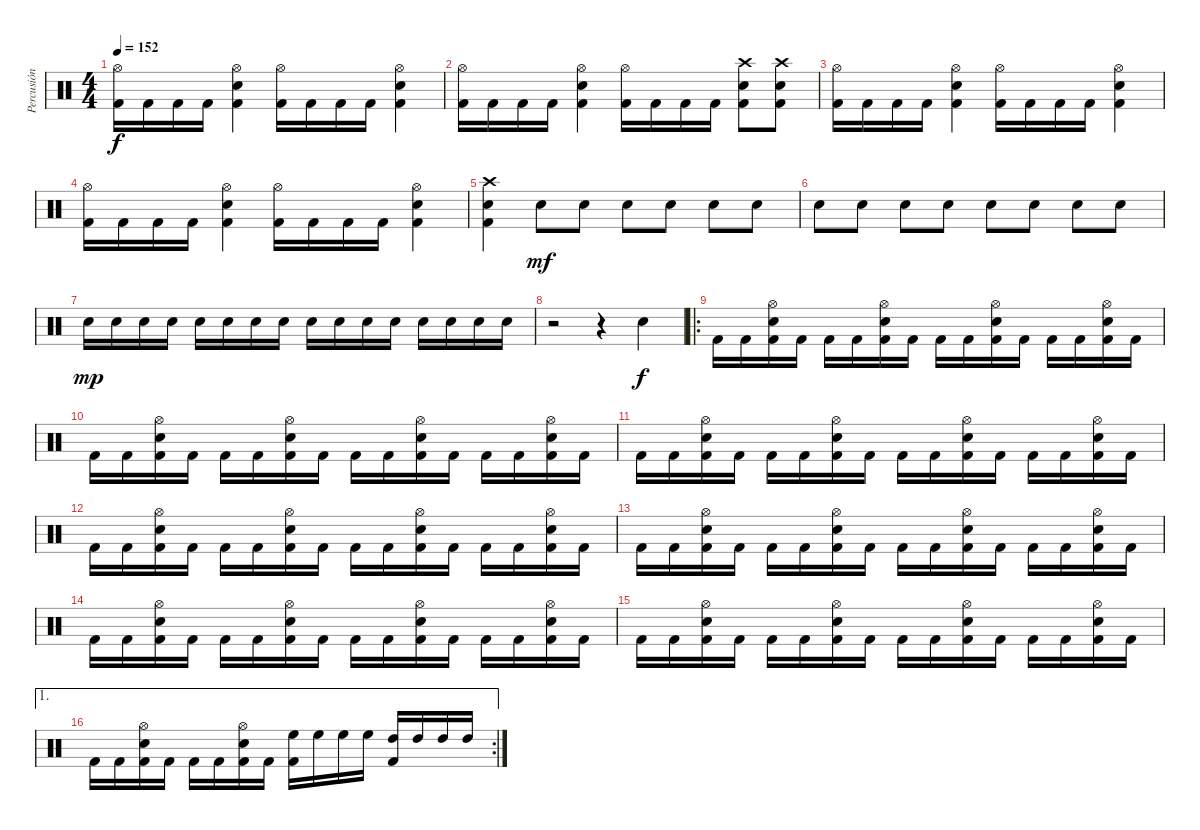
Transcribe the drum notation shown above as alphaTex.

\track ("Percusión" "Percusión") {instrument percussion}
\staff {score}
\articulation defaults
\ts (4 4)
\tempo 152
\clef neutral
\ks c
("Hi-Hat (open)" "Kick (hit) 2").16{dy f} "Kick (hit) 2".16 "Kick (hit) 2".16 "Kick (hit) 2".16 ("Hi-Hat (open)" "Snare (hit) 2" "Kick (hit) 2").4 ("Hi-Hat (open)" "Kick (hit) 2").16 "Kick (hit) 2".16 "Kick (hit) 2".16 "Kick (hit) 2".16 ("Hi-Hat (open)" "Snare (hit) 2" "Kick (hit) 2").4 |
("Hi-Hat (open)" "Kick (hit) 2").16 "Kick (hit) 2".16 "Kick (hit) 2".16 "Kick (hit) 2".16 ("Hi-Hat (open)" "Snare (hit) 2" "Kick (hit) 2").4 ("Hi-Hat (open)" "Kick (hit) 2").16 "Kick (hit) 2".16 "Kick (hit) 2".16 "Kick (hit) 2".16 ("Crash high (hit)" "Snare (hit) 2" "Kick (hit) 2").8 ("Crash high (hit)" "Snare (hit) 2" "Kick (hit) 2").8 |
("Hi-Hat (open)" "Kick (hit) 2").16 "Kick (hit) 2".16 "Kick (hit) 2".16 "Kick (hit) 2".16 ("Hi-Hat (open)" "Snare (hit) 2" "Kick (hit) 2").4 ("Hi-Hat (open)" "Kick (hit) 2").16 "Kick (hit) 2".16 "Kick (hit) 2".16 "Kick (hit) 2".16 ("Hi-Hat (open)" "Snare (hit) 2" "Kick (hit) 2").4 |
("Hi-Hat (open)" "Kick (hit) 2").16 "Kick (hit) 2".16 "Kick (hit) 2".16 "Kick (hit) 2".16 ("Hi-Hat (open)" "Snare (hit) 2" "Kick (hit) 2").4 ("Hi-Hat (open)" "Kick (hit) 2").16 "Kick (hit) 2".16 "Kick (hit) 2".16 "Kick (hit) 2".16 ("Hi-Hat (open)" "Snare (hit) 2" "Kick (hit) 2").4 |
("Crash high (hit)" "Snare (hit) 2" "Kick (hit) 2").4 "Snare (hit) 2".8{dy mf} "Snare (hit) 2".8 "Snare (hit) 2".8 "Snare (hit) 2".8 "Snare (hit) 2".8 "Snare (hit) 2".8 |
"Snare (hit) 2".8 "Snare (hit) 2".8 "Snare (hit) 2".8 "Snare (hit) 2".8 "Snare (hit) 2".8 "Snare (hit) 2".8 "Snare (hit) 2".8 "Snare (hit) 2".8 |
"Snare (hit) 2".16{dy mp} "Snare (hit) 2".16 "Snare (hit) 2".16 "Snare (hit) 2".16 "Snare (hit) 2".16 "Snare (hit) 2".16 "Snare (hit) 2".16 "Snare (hit) 2".16 "Snare (hit) 2".16 "Snare (hit) 2".16 "Snare (hit) 2".16 "Snare (hit) 2".16 "Snare (hit) 2".16 "Snare (hit) 2".16 "Snare (hit) 2".16 "Snare (hit) 2".16 |
r.2 r.4 "Snare (hit) 2".4{dy f} |
\ro "Kick (hit) 2".16 "Kick (hit) 2".16
("Hi-Hat (open)" "Snare (hit) 2" "Kick (hit) 2").16 "Kick (hit) 2".16 "Kick (hit) 2".16 "Kick (hit) 2".16 ("Hi-Hat (open)" "Snare (hit) 2" "Kick (hit) 2").16 "Kick (hit) 2".16 "Kick (hit) 2".16 "Kick (hit) 2".16 ("Hi-Hat (open)" "Snare (hit) 2" "Kick (hit) 2").16 "Kick (hit) 2".16 "Kick (hit) 2".16 "Kick (hit) 2".16 ("Hi-Hat (open)" "Snare (hit) 2" "Kick (hit) 2").16 "Kick (hit) 2".16 |
"Kick (hit) 2".16 "Kick (hit) 2".16 ("Hi-Hat (open)" "Snare (hit) 2" "Kick (hit) 2").16 "Kick (hit) 2".16 "Kick (hit) 2".16 "Kick (hit) 2".16 ("Hi-Hat (open)" "Snare (hit) 2" "Kick (hit) 2").16 "Kick (hit) 2".16 "Kick (hit) 2".16 "Kick (hit) 2".16 ("Hi-Hat (open)" "Snare (hit) 2" "Kick (hit) 2").16 "Kick (hit) 2".16 "Kick (hit) 2".16 "Kick (hit) 2".16 ("Hi-Hat (open)" "Snare (hit) 2" "Kick (hit) 2").16 "Kick (hit) 2".16 |
"Kick (hit) 2".16 "Kick (hit) 2".16 ("Hi-Hat (open)" "Snare (hit) 2" "Kick (hit) 2").16 "Kick (hit) 2".16 "Kick (hit) 2".16 "Kick (hit) 2".16 ("Hi-Hat (open)" "Snare (hit) 2" "Kick (hit) 2").16 "Kick (hit) 2".16 "Kick (hit) 2".16 "Kick (hit) 2".16 ("Hi-Hat (open)" "Snare (hit) 2" "Kick (hit) 2").16 "Kick (hit) 2".16 "Kick (hit) 2".16 "Kick (hit) 2".16 ("Hi-Hat (open)" "Snare (hit) 2" "Kick (hit) 2").16 "Kick (hit) 2".16 |
"Kick (hit) 2".16 "Kick (hit) 2".16 ("Hi-Hat (open)" "Snare (hit) 2" "Kick (hit) 2").16 "Kick (hit) 2".16 "Kick (hit) 2".16 "Kick (hit) 2".16 ("Hi-Hat (open)" "Snare (hit) 2" "Kick (hit) 2").16 "Kick (hit) 2".16 "Kick (hit) 2".16 "Kick (hit) 2".16 ("Hi-Hat (open)" "Snare (hit) 2" "Kick (hit) 2").16 "Kick (hit) 2".16 "Kick (hit) 2".16 "Kick (hit) 2".16 ("Hi-Hat (open)" "Snare (hit) 2" "Kick (hit) 2").16 "Kick (hit) 2".16 |
"Kick (hit) 2".16 "Kick (hit) 2".16 ("Hi-Hat (open)" "Snare (hit) 2" "Kick (hit) 2").16 "Kick (hit) 2".16 "Kick (hit) 2".16 "Kick (hit) 2".16 ("Hi-Hat (open)" "Snare (hit) 2" "Kick (hit) 2").16 "Kick (hit) 2".16 "Kick (hit) 2".16 "Kick (hit) 2".16 ("Hi-Hat (open)" "Snare (hit) 2" "Kick (hit) 2").16 "Kick (hit) 2".16 "Kick (hit) 2".16 "Kick (hit) 2".16 ("Hi-Hat (open)" "Snare (hit) 2" "Kick (hit) 2").16 "Kick (hit) 2".16 |
"Kick (hit) 2".16 "Kick (hit) 2".16 ("Hi-Hat (open)" "Snare (hit) 2" "Kick (hit) 2").16 "Kick (hit) 2".16 "Kick (hit) 2".16 "Kick (hit) 2".16 ("Hi-Hat (open)" "Snare (hit) 2" "Kick (hit) 2").16 "Kick (hit) 2".16 "Kick (hit) 2".16 "Kick (hit) 2".16 ("Hi-Hat (open)" "Snare (hit) 2" "Kick (hit) 2").16 "Kick (hit) 2".16 "Kick (hit) 2".16 "Kick (hit) 2".16 ("Hi-Hat (open)" "Snare (hit) 2" "Kick (hit) 2").16 "Kick (hit) 2".16 |
"Kick (hit) 2".16 "Kick (hit) 2".16 ("Hi-Hat (open)" "Snare (hit) 2" "Kick (hit) 2").16 "Kick (hit) 2".16 "Kick (hit) 2".16 "Kick (hit) 2".16 ("Hi-Hat (open)" "Snare (hit) 2" "Kick (hit) 2").16 "Kick (hit) 2".16 "Kick (hit) 2".16 "Kick (hit) 2".16 ("Hi-Hat (open)" "Snare (hit) 2" "Kick (hit) 2").16 "Kick (hit) 2".16 "Kick (hit) 2".16 "Kick (hit) 2".16 ("Hi-Hat (open)" "Snare (hit) 2" "Kick (hit) 2").16 "Kick (hit) 2".16 |
\ae 1
\rc 2 "Kick (hit) 2".16 "Kick (hit) 2".16
("Hi-Hat (open)" "Snare (hit) 2" "Kick (hit) 2").16 "Kick (hit) 2".16 "Kick (hit) 2".16 "Kick (hit) 2".16 ("Hi-Hat (open)" "Snare (hit) 2" "Kick (hit) 2").16 "Kick (hit) 2".16 ("Kick (hit) 2" "High Floor Tom (hit)").16 "High Floor Tom (hit)".16 "High Floor Tom (hit)".16 "High Floor Tom (hit)".16 ("Kick (hit) 2" "High Tom (hit)").16 "High Tom (hit)".16 "High Tom (hit)".16 "High Tom (hit)".16
